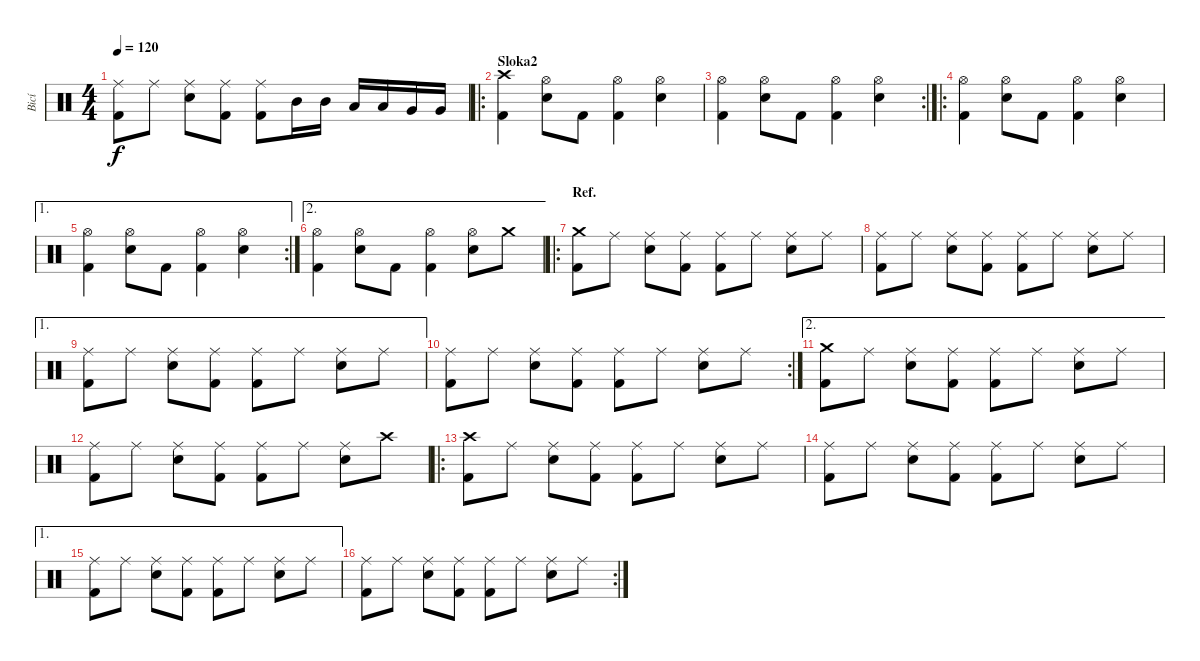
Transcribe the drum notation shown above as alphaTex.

\track ("Bicí" "Bicí") {instrument percussion}
\staff {score}
\articulation defaults
\ts (4 4)
\tempo 120
\clef neutral
\ks c
("Ride (middle)" "Kick (hit) 2").8{dy f} "Ride (middle)".8 ("Ride (middle)" "Snare (hit) 2").8 ("Ride (middle)" "Kick (hit) 2").8 ("Ride (middle)" "Kick (hit) 2").8 "Mid Tom (hit)".16{balance 0} "Mid Tom (hit)".16 "Low Tom (hit)".16{balance 8} "Low Tom (hit)".16 "Very Low Tom (hit)".16{balance 16} "Very Low Tom (hit)".16 |
\ro
\section ("" "Sloka2")
("Crash high (hit)" "Kick (hit) 2").4{balance 8} ("Hi-Hat (open)" "Snare (hit) 2").8 "Kick (hit) 2".8 ("Hi-Hat (open)" "Kick (hit) 2").4 ("Hi-Hat (open)" "Snare (hit) 2").4 |
\rc 2
("Hi-Hat (open)" "Kick (hit) 2").4 ("Hi-Hat (open)" "Snare (hit) 2").8 "Kick (hit) 2".8 ("Hi-Hat (open)" "Kick (hit) 2").4 ("Hi-Hat (open)" "Snare (hit) 2").4 |
\ro
("Hi-Hat (open)" "Kick (hit) 2").4 ("Hi-Hat (open)" "Snare (hit) 2").8 "Kick (hit) 2".8 ("Hi-Hat (open)" "Kick (hit) 2").4 ("Hi-Hat (open)" "Snare (hit) 2").4 |
\ae 1
\rc 2
("Hi-Hat (open)" "Kick (hit) 2").4 ("Hi-Hat (open)" "Snare (hit) 2").8 "Kick (hit) 2".8 ("Hi-Hat (open)" "Kick (hit) 2").4 ("Hi-Hat (open)" "Snare (hit) 2").4 |
\ae 2
("Hi-Hat (open)" "Kick (hit) 2").4 ("Hi-Hat (open)" "Snare (hit) 2").8 "Kick (hit) 2".8 ("Hi-Hat (open)" "Kick (hit) 2").4 ("Hi-Hat (open)" "Snare (hit) 2").8 "Crash medium (hit)".8{balance 0} |
\ro
\section ("" "Ref.")
("Crash medium (hit)" "Kick (hit) 2").8{balance 16} "Ride (middle)".8{balance 8} ("Ride (middle)" "Snare (hit) 2").8 ("Ride (middle)" "Kick (hit) 2").8 ("Ride (middle)" "Kick (hit) 2").8 "Ride (middle)".8 ("Ride (middle)" "Snare (hit) 2").8 "Ride (middle)".8 |
("Ride (middle)" "Kick (hit) 2").8 "Ride (middle)".8 ("Ride (middle)" "Snare (hit) 2").8 ("Ride (middle)" "Kick (hit) 2").8 ("Ride (middle)" "Kick (hit) 2").8 "Ride (middle)".8 ("Ride (middle)" "Snare (hit) 2").8 "Ride (middle)".8 |
\ae 1
("Ride (middle)" "Kick (hit) 2").8 "Ride (middle)".8 ("Ride (middle)" "Snare (hit) 2").8 ("Ride (middle)" "Kick (hit) 2").8 ("Ride (middle)" "Kick (hit) 2").8 "Ride (middle)".8 ("Ride (middle)" "Snare (hit) 2").8 "Ride (middle)".8 |
\rc 2
("Ride (middle)" "Kick (hit) 2").8 "Ride (middle)".8 ("Ride (middle)" "Snare (hit) 2").8 ("Ride (middle)" "Kick (hit) 2").8 ("Ride (middle)" "Kick (hit) 2").8 "Ride (middle)".8 ("Ride (middle)" "Snare (hit) 2").8 "Ride (middle)".8 |
\ae 2
("Crash medium (hit)" "Kick (hit) 2").8 "Ride (middle)".8 ("Ride (middle)" "Snare (hit) 2").8 ("Ride (middle)" "Kick (hit) 2").8 ("Ride (middle)" "Kick (hit) 2").8 "Ride (middle)".8 ("Ride (middle)" "Snare (hit) 2").8 "Ride (middle)".8 |
("Ride (middle)" "Kick (hit) 2").8 "Ride (middle)".8 ("Ride (middle)" "Snare (hit) 2").8 ("Ride (middle)" "Kick (hit) 2").8 ("Ride (middle)" "Kick (hit) 2").8 "Ride (middle)".8 ("Ride (middle)" "Snare (hit) 2").8 "Crash high (hit)".8{balance 0} |
\ro
("Crash high (hit)" "Kick (hit) 2").8{balance 16} "Ride (middle)".8{balance 8} ("Ride (middle)" "Snare (hit) 2").8 ("Ride (middle)" "Kick (hit) 2").8 ("Ride (middle)" "Kick (hit) 2").8 "Ride (middle)".8 ("Ride (middle)" "Snare (hit) 2").8 "Ride (middle)".8 |
("Ride (middle)" "Kick (hit) 2").8 "Ride (middle)".8 ("Ride (middle)" "Snare (hit) 2").8 ("Ride (middle)" "Kick (hit) 2").8 ("Ride (middle)" "Kick (hit) 2").8 "Ride (middle)".8 ("Ride (middle)" "Snare (hit) 2").8 "Ride (middle)".8 |
\ae 1
("Ride (middle)" "Kick (hit) 2").8 "Ride (middle)".8 ("Ride (middle)" "Snare (hit) 2").8 ("Ride (middle)" "Kick (hit) 2").8 ("Ride (middle)" "Kick (hit) 2").8 "Ride (middle)".8 ("Ride (middle)" "Snare (hit) 2").8 "Ride (middle)".8 |
\rc 2
("Ride (middle)" "Kick (hit) 2").8 "Ride (middle)".8 ("Ride (middle)" "Snare (hit) 2").8 ("Ride (middle)" "Kick (hit) 2").8 ("Ride (middle)" "Kick (hit) 2").8 "Ride (middle)".8 ("Ride (middle)" "Snare (hit) 2").8 "Ride (middle)".8
